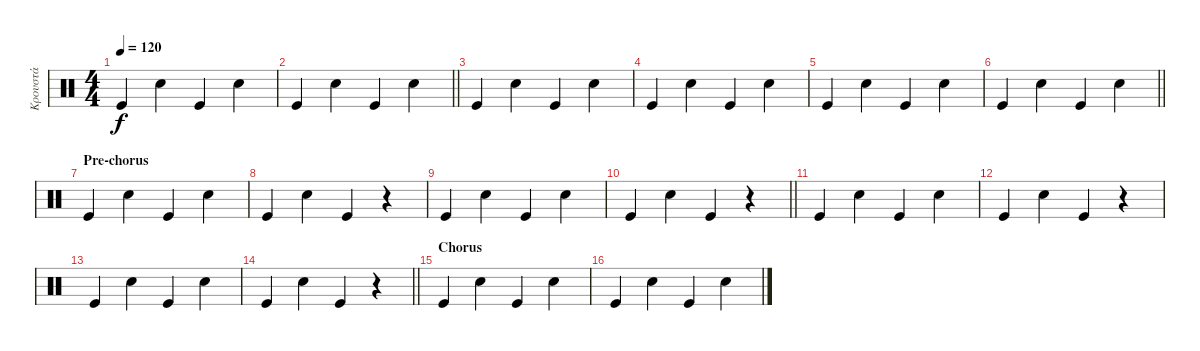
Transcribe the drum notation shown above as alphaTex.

\track ("Κρουστά" "Κρουστά") {instrument percussion}
\staff {score}
\articulation defaults
\ts (4 4)
\tempo 120
\clef neutral
\ks c "Kick (hit)".4{dy f} "Hand Clap (hit)".4 "Kick (hit)".4 "Hand Clap (hit)".4
|
\barLineRight lightlight "Kick (hit)".4 "Hand Clap (hit)".4 "Kick (hit)".4 "Hand Clap (hit)".4
|
"Kick (hit)".4 "Hand Clap (hit)".4 "Kick (hit)".4 "Hand Clap (hit)".4 |
"Kick (hit)".4 "Hand Clap (hit)".4 "Kick (hit)".4 "Hand Clap (hit)".4 |
"Kick (hit)".4 "Hand Clap (hit)".4 "Kick (hit)".4 "Hand Clap (hit)".4 |
\barLineRight lightlight "Kick (hit)".4 "Hand Clap (hit)".4 "Kick (hit)".4 "Hand Clap (hit)".4
|
\section ("" "Pre-chorus")
"Kick (hit)".4 "Hand Clap (hit)".4 "Kick (hit)".4 "Hand Clap (hit)".4 |
"Kick (hit)".4 "Hand Clap (hit)".4 "Kick (hit)".4 r.4 |
"Kick (hit)".4 "Hand Clap (hit)".4 "Kick (hit)".4 "Hand Clap (hit)".4 |
\barLineRight lightlight "Kick (hit)".4 "Hand Clap (hit)".4 "Kick (hit)".4
r.4 |
"Kick (hit)".4 "Hand Clap (hit)".4 "Kick (hit)".4 "Hand Clap (hit)".4 |
"Kick (hit)".4 "Hand Clap (hit)".4 "Kick (hit)".4 r.4 |
"Kick (hit)".4 "Hand Clap (hit)".4 "Kick (hit)".4 "Hand Clap (hit)".4 |
\barLineRight lightlight "Kick (hit)".4 "Hand Clap (hit)".4 "Kick (hit)".4
r.4 |
\section ("" "Chorus")
"Kick (hit)".4 "Hand Clap (hit)".4 "Kick (hit)".4 "Hand Clap (hit)".4 |
"Kick (hit)".4 "Hand Clap (hit)".4 "Kick (hit)".4 "Hand Clap (hit)".4
